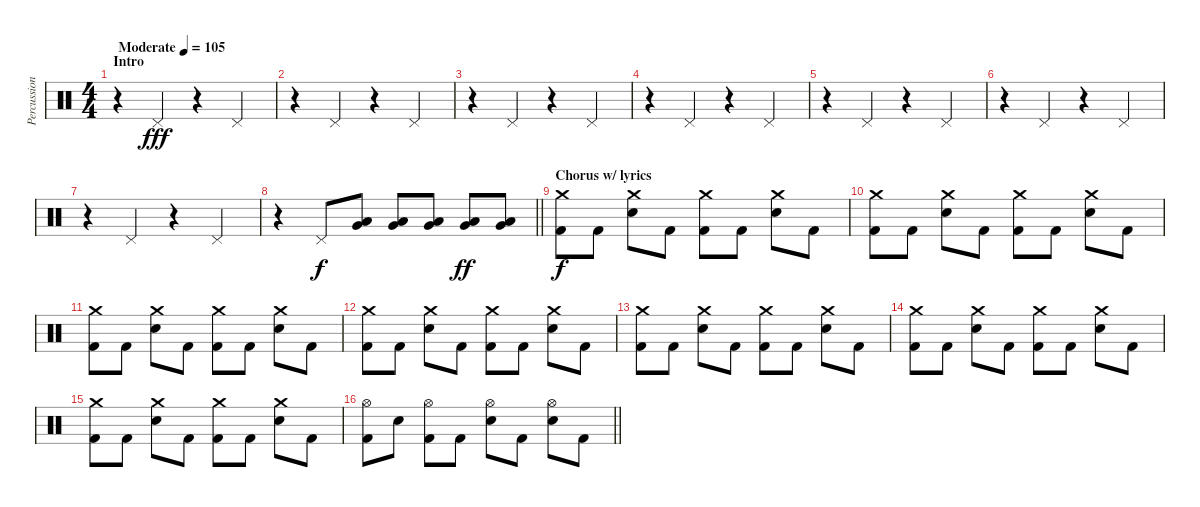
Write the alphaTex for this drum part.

\track ("Percussions" "Percussion") {instrument percussion}
\staff {score}
\articulation defaults
\ts (4 4)
\section ("" "Intro")
\tempo (105 "Moderate")
\clef neutral
\ks c
r.4{dy fff} "Pedal Hi-Hat (hit)".4 r.4 "Pedal Hi-Hat (hit)".4 |
r.4 "Pedal Hi-Hat (hit)".4 r.4 "Pedal Hi-Hat (hit)".4 |
r.4 "Pedal Hi-Hat (hit)".4 r.4 "Pedal Hi-Hat (hit)".4 |
r.4 "Pedal Hi-Hat (hit)".4 r.4 "Pedal Hi-Hat (hit)".4 |
r.4 "Pedal Hi-Hat (hit)".4 r.4 "Pedal Hi-Hat (hit)".4 |
r.4 "Pedal Hi-Hat (hit)".4 r.4 "Pedal Hi-Hat (hit)".4 |
r.4 "Pedal Hi-Hat (hit)".4 r.4 "Pedal Hi-Hat (hit)".4 |
\barLineRight lightlight
r.4 "Pedal Hi-Hat (hit)".8{dy f} ("Low Tom (hit)" "Very Low Tom (hit)").8 ("Low Tom (hit)" "Very Low Tom (hit)").8 ("Low Tom (hit)" "Very Low Tom (hit)").8 ("Very Low Tom (hit)" "Low Floor Tom (hit)").8{dy ff} ("Very Low Tom (hit)" "Low Floor Tom (hit)").8 |
\section ("" "Chorus w/ lyrics")
("Crash medium (hit)" "Kick (hit) 2").8{dy f} "Kick (hit) 2".8 ("Crash medium (hit)" "Electric Snare (hit)").8 "Kick (hit) 2".8 ("Crash medium (hit)" "Kick (hit) 2").8 "Kick (hit) 2".8 ("Crash medium (hit)" "Electric Snare (hit)").8 "Kick (hit) 2".8 |
("Crash medium (hit)" "Kick (hit) 2").8 "Kick (hit) 2".8 ("Crash medium (hit)" "Electric Snare (hit)").8 "Kick (hit) 2".8 ("Crash medium (hit)" "Kick (hit) 2").8 "Kick (hit) 2".8 ("Crash medium (hit)" "Electric Snare (hit)").8 "Kick (hit) 2".8 |
("Crash medium (hit)" "Kick (hit) 2").8 "Kick (hit) 2".8 ("Crash medium (hit)" "Electric Snare (hit)").8 "Kick (hit) 2".8 ("Crash medium (hit)" "Kick (hit) 2").8 "Kick (hit) 2".8 ("Crash medium (hit)" "Electric Snare (hit)").8 "Kick (hit) 2".8 |
("Crash medium (hit)" "Kick (hit) 2").8 "Kick (hit) 2".8 ("Crash medium (hit)" "Electric Snare (hit)").8 "Kick (hit) 2".8 ("Crash medium (hit)" "Kick (hit) 2").8 "Kick (hit) 2".8 ("Crash medium (hit)" "Electric Snare (hit)").8 "Kick (hit) 2".8 |
("Crash medium (hit)" "Kick (hit) 2").8 "Kick (hit) 2".8 ("Crash medium (hit)" "Electric Snare (hit)").8 "Kick (hit) 2".8 ("Crash medium (hit)" "Kick (hit) 2").8 "Kick (hit) 2".8 ("Crash medium (hit)" "Electric Snare (hit)").8 "Kick (hit) 2".8 |
("Crash medium (hit)" "Kick (hit) 2").8 "Kick (hit) 2".8 ("Crash medium (hit)" "Electric Snare (hit)").8 "Kick (hit) 2".8 ("Crash medium (hit)" "Kick (hit) 2").8 "Kick (hit) 2".8 ("Crash medium (hit)" "Electric Snare (hit)").8 "Kick (hit) 2".8 |
("Crash medium (hit)" "Kick (hit) 2").8 "Kick (hit) 2".8 ("Crash medium (hit)" "Electric Snare (hit)").8 "Kick (hit) 2".8 ("Crash medium (hit)" "Kick (hit) 2").8 "Kick (hit) 2".8 ("Crash medium (hit)" "Electric Snare (hit)").8 "Kick (hit) 2".8 |
\barLineRight lightlight
("Hi-Hat (open)" "Kick (hit) 2").8 "Electric Snare (hit)".8 ("Hi-Hat (open)" "Kick (hit) 2").8 "Kick (hit) 2".8 ("Hi-Hat (open)" "Electric Snare (hit)").8 "Kick (hit) 2".8 ("Hi-Hat (open)" "Electric Snare (hit)").8 "Kick (hit) 2".8
